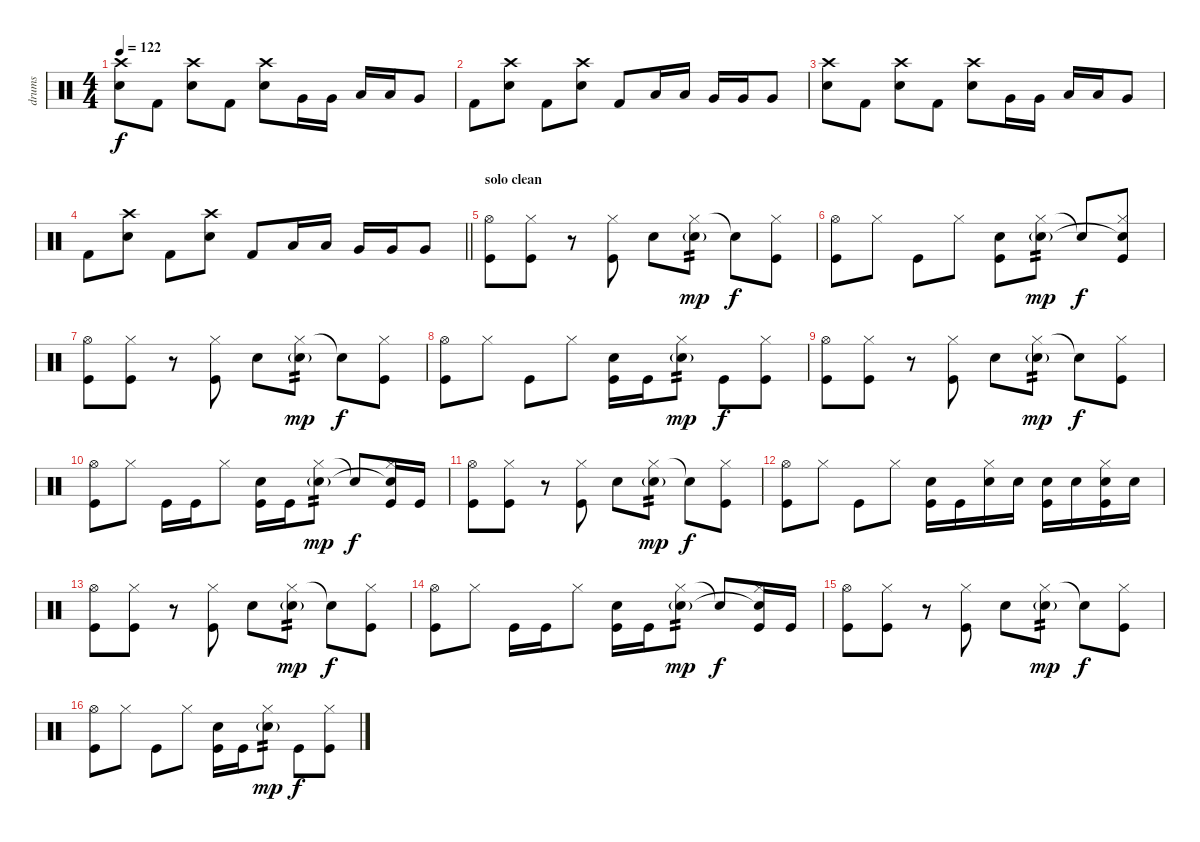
\track ("drums" "drums") {instrument percussion}
\staff {score}
\articulation defaults
\ts (4 4)
\tempo 122
\clef neutral
\ks c
("Crash high (hit)" "Electric Snare (hit)").8{dy f} "Kick (hit) 2".8 ("Crash high (hit)" "Electric Snare (hit)").8 "Kick (hit) 2".8 ("Crash high (hit)" "Electric Snare (hit)").8 "Very Low Tom (hit)".16 "Very Low Tom (hit)".16 "Low Tom (hit)".16 "Low Tom (hit)".16 "Very Low Tom (hit)".8 |
"Kick (hit) 2".8 ("Crash high (hit)" "Electric Snare (hit)").8 "Kick (hit) 2".8 ("Crash high (hit)" "Electric Snare (hit)").8 "Kick (hit) 2".8 "Low Tom (hit)".16 "Low Tom (hit)".16 "Very Low Tom (hit)".16 "Very Low Tom (hit)".16 "Very Low Tom (hit)".8 |
("Crash high (hit)" "Electric Snare (hit)").8 "Kick (hit) 2".8 ("Crash high (hit)" "Electric Snare (hit)").8 "Kick (hit) 2".8 ("Crash high (hit)" "Electric Snare (hit)").8 "Very Low Tom (hit)".16 "Very Low Tom (hit)".16 "Low Tom (hit)".16 "Low Tom (hit)".16 "Very Low Tom (hit)".8 |
\barLineRight lightlight "Kick (hit) 2".8
("Crash high (hit)" "Electric Snare (hit)").8 "Kick (hit) 2".8 ("Crash high (hit)" "Electric Snare (hit)").8 "Kick (hit) 2".8 "Low Tom (hit)".16 "Low Tom (hit)".16 "Very Low Tom (hit)".16 "Very Low Tom (hit)".16 "Very Low Tom (hit)".8 |
\section ("" "solo clean")
("Hi-Hat (open)" "Kick (hit)").8 ("Hi-Hat (closed)" "Kick (hit)").8 r.8 ("Hi-Hat (closed)" "Kick (hit)").8 "Electric Snare (hit)".8 ("Hi-Hat (closed)" "Electric Snare (hit)"{g}).8{tp 2 dy mp} "Snare (hit)"{t}.8{dy f} ("Hi-Hat (closed)" "Kick (hit)").8 |
("Hi-Hat (open)" "Kick (hit)").8 "Hi-Hat (closed)".8 "Kick (hit)".8 "Hi-Hat (closed)".8 ("Electric Snare (hit)" "Kick (hit)").8 ("Hi-Hat (closed)" "Electric Snare (hit)"{g}).8{tp 2 dy mp} "Snare (hit)"{t}.8{dy f} ("Hi-Hat (closed)" "Snare (hit)"{t} "Kick (hit)").8 |
("Hi-Hat (open)" "Kick (hit)").8 ("Hi-Hat (closed)" "Kick (hit)").8 r.8 ("Hi-Hat (closed)" "Kick (hit)").8 "Electric Snare (hit)".8 ("Hi-Hat (closed)" "Electric Snare (hit)"{g}).8{tp 2 dy mp} "Snare (hit)"{t}.8{dy f} ("Hi-Hat (closed)" "Kick (hit)").8 |
("Hi-Hat (open)" "Kick (hit)").8 "Hi-Hat (closed)".8 "Kick (hit)".8 "Hi-Hat (closed)".8 ("Electric Snare (hit)" "Kick (hit)").16 "Kick (hit)".16 ("Hi-Hat (closed)" "Electric Snare (hit)"{g}).8{tp 2 dy mp} "Kick (hit)".8{dy f} ("Hi-Hat (closed)" "Kick (hit)").8 |
("Hi-Hat (open)" "Kick (hit)").8 ("Hi-Hat (closed)" "Kick (hit)").8 r.8 ("Hi-Hat (closed)" "Kick (hit)").8 "Electric Snare (hit)".8 ("Hi-Hat (closed)" "Electric Snare (hit)"{g}).8{tp 2 dy mp} "Snare (hit)"{t}.8{dy f} ("Hi-Hat (closed)" "Kick (hit)").8 |
("Hi-Hat (open)" "Kick (hit)").8 "Hi-Hat (closed)".8 "Kick (hit)".16 "Kick (hit)".16 "Hi-Hat (closed)".8 ("Electric Snare (hit)" "Kick (hit)").16 "Kick (hit)".16 ("Hi-Hat (closed)" "Electric Snare (hit)"{g}).8{tp 2 dy mp} "Snare (hit)"{t}.8{dy f} ("Hi-Hat (closed)" "Snare (hit)"{t} "Kick (hit)").16 "Kick (hit)".16 |
("Hi-Hat (open)" "Kick (hit)").8 ("Hi-Hat (closed)" "Kick (hit)").8 r.8 ("Hi-Hat (closed)" "Kick (hit)").8 "Electric Snare (hit)".8 ("Hi-Hat (closed)" "Electric Snare (hit)"{g}).8{tp 2 dy mp} "Snare (hit)"{t}.8{dy f} ("Hi-Hat (closed)" "Kick (hit)").8 |
("Hi-Hat (open)" "Kick (hit)").8 "Hi-Hat (closed)".8 "Kick (hit)".8 "Hi-Hat (closed)".8 ("Electric Snare (hit)" "Kick (hit)").16 "Kick (hit)".16 ("Hi-Hat (closed)" "Electric Snare (hit)").16 "Electric Snare (hit)".16 ("Electric Snare (hit)" "Kick (hit)").16 "Electric Snare (hit)".16 ("Hi-Hat (closed)" "Electric Snare (hit)" "Kick (hit)").16 "Electric Snare (hit)".16 |
("Hi-Hat (open)" "Kick (hit)").8 ("Hi-Hat (closed)" "Kick (hit)").8 r.8 ("Hi-Hat (closed)" "Kick (hit)").8 "Electric Snare (hit)".8 ("Hi-Hat (closed)" "Electric Snare (hit)"{g}).8{tp 2 dy mp} "Snare (hit)"{t}.8{dy f} ("Hi-Hat (closed)" "Kick (hit)").8 |
("Hi-Hat (open)" "Kick (hit)").8 "Hi-Hat (closed)".8 "Kick (hit)".16 "Kick (hit)".16 "Hi-Hat (closed)".8 ("Electric Snare (hit)" "Kick (hit)").16 "Kick (hit)".16 ("Hi-Hat (closed)" "Electric Snare (hit)"{g}).8{tp 2 dy mp} "Snare (hit)"{t}.8{dy f} ("Hi-Hat (closed)" "Snare (hit)"{t} "Kick (hit)").16 "Kick (hit)".16 |
("Hi-Hat (open)" "Kick (hit)").8 ("Hi-Hat (closed)" "Kick (hit)").8 r.8 ("Hi-Hat (closed)" "Kick (hit)").8 "Electric Snare (hit)".8 ("Hi-Hat (closed)" "Electric Snare (hit)"{g}).8{tp 2 dy mp} "Snare (hit)"{t}.8{dy f} ("Hi-Hat (closed)" "Kick (hit)").8 |
("Hi-Hat (open)" "Kick (hit)").8 "Hi-Hat (closed)".8 "Kick (hit)".8 "Hi-Hat (closed)".8 ("Electric Snare (hit)" "Kick (hit)").16 "Kick (hit)".16 ("Hi-Hat (closed)" "Electric Snare (hit)"{g}).8{tp 2 dy mp} "Kick (hit)".8{dy f} ("Hi-Hat (closed)" "Kick (hit)").8
